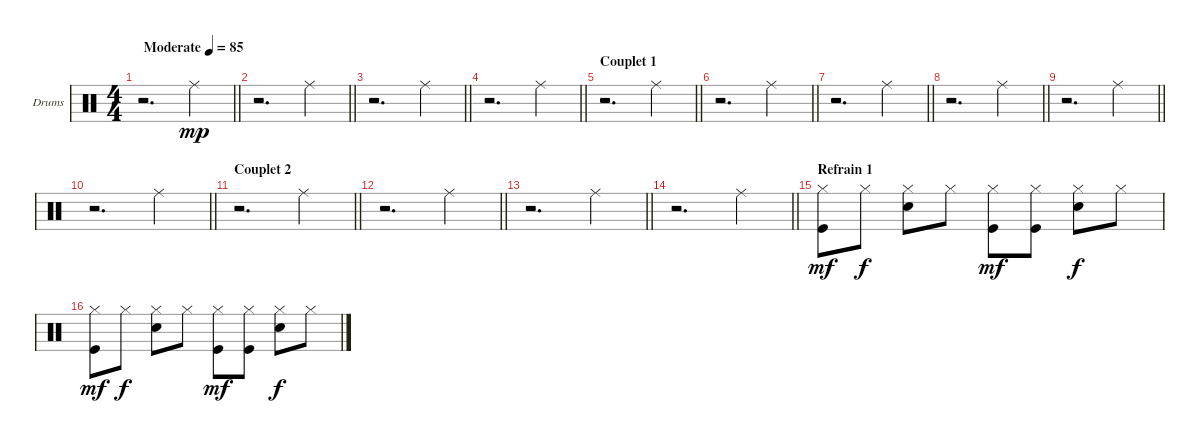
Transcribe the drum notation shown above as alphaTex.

\bracketExtendMode groupsimilarinstruments
\firstSystemTrackNameOrientation horizontal
\otherSystemsTrackNameOrientation horizontal
\chordDiagramsInScore
\track ("Drumkit" "Drums") {instrument percussion}
\staff {score}
\articulation defaults
\ts (4 4)
\beaming (8 2 2 2 2)
\tempo (85 "Moderate")
\clef neutral
\barLineRight lightlight
\ks c
r.2{d dy mp} "Ride (middle)".4 |
\barLineRight lightlight
r.2{d} "Ride (middle)".4 |
\barLineRight lightlight
r.2{d} "Ride (middle)".4 |
\barLineRight lightlight
r.2{d} "Ride (middle)".4 |
\section ("" "Couplet 1")
\barLineRight lightlight
r.2{d} "Ride (middle)".4 |
\barLineRight lightlight
r.2{d} "Ride (middle)".4 |
\barLineRight lightlight
r.2{d} "Ride (middle)".4 |
\barLineRight lightlight
r.2{d} "Ride (middle)".4 |
\barLineRight lightlight
r.2{d} "Ride (middle)".4 |
\barLineRight lightlight
r.2{d} "Ride (middle)".4 |
\section ("" "Couplet 2")
\barLineRight lightlight
r.2{d} "Ride (middle)".4 |
\barLineRight lightlight
r.2{d} "Ride (middle)".4 |
\barLineRight lightlight
r.2{d} "Ride (middle)".4 |
\barLineRight lightlight
r.2{d} "Ride (middle)".4 |
\section ("" "Refrain 1")
("Hi-Hat (closed)" "Kick (hit)").8{dy mf} "Hi-Hat (closed)".8{dy f} ("Hi-Hat (closed)" "Snare (hit) 2").8 "Hi-Hat (closed)".8 ("Hi-Hat (closed)" "Kick (hit)").8{dy mf} ("Hi-Hat (closed)" "Kick (hit)").8 ("Hi-Hat (closed)" "Snare (hit) 2").8{dy f} "Hi-Hat (closed)".8 |
("Hi-Hat (closed)" "Kick (hit)").8{dy mf} "Hi-Hat (closed)".8{dy f} ("Hi-Hat (closed)" "Snare (hit) 2").8 "Hi-Hat (closed)".8 ("Hi-Hat (closed)" "Kick (hit)").8{dy mf} ("Hi-Hat (closed)" "Kick (hit)").8 ("Hi-Hat (closed)" "Snare (hit) 2").8{dy f} "Hi-Hat (closed)".8
